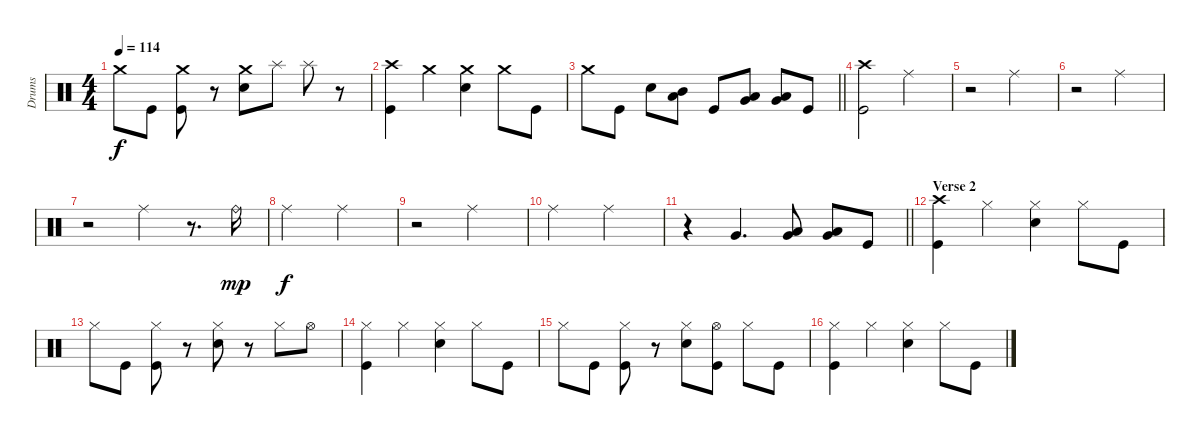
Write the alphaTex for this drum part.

\track ("Drums" "Drums") {instrument percussion}
\staff {score}
\articulation defaults
\ts (4 4)
\tempo 114
\clef neutral
\ks c "Crash medium (hit)".8{dy f} "Kick (hit)".8
("Crash medium (hit)" "Kick (hit)").8 r.8 ("Crash medium (hit)" "Electric Snare (hit)").8 "Splash (hit)".8 "Splash (hit)".8 r.8 |
("Crash high (hit)" "Kick (hit)").4 "Crash medium (hit)".4 ("Crash medium (hit)" "Electric Snare (hit)").4 "Crash medium (hit)".8 "Kick (hit)".8 |
\barLineRight lightlight "Crash medium (hit)".8 "Kick (hit)".8 "Electric Snare (hit)".8
("Mid Tom (hit)" "Low Tom (hit)").8 "Kick (hit)".8 ("Low Tom (hit)" "Very Low Tom (hit)").8 ("Very Low Tom (hit)" "Low Floor Tom (hit)").8 "Kick (hit)".8 |
\section ("" "")
("Crash high (hit)" "Kick (hit)").2 "Ride (middle)".2 |
r.2 "Ride (middle)".2 |
r.2 "Ride (middle)".2 |
r.2 "Ride (middle)".4 r.8{d} "Ride (bell)".16{dy mp} |
"Ride (middle)".2{dy f} "Ride (middle)".2 |
r.2 "Ride (middle)".2 |
"Ride (middle)".2 "Ride (middle)".2 |
\barLineRight lightlight
r.4 "Very Low Tom (hit)".4{d} ("Very Low Tom (hit)" "Low Tom (hit)").8 ("Low Floor Tom (hit)" "Very Low Tom (hit)").8 "Kick (hit)".8 |
\section ("" "Verse 2")
("Crash high (hit)" "Kick (hit)").4 "Hi-Hat (closed)".4 ("Hi-Hat (closed)" "Electric Snare (hit)").4 "Hi-Hat (closed)".8 "Kick (hit)".8 |
"Hi-Hat (closed)".8 "Kick (hit)".8 ("Hi-Hat (closed)" "Kick (hit)").8 r.8 ("Hi-Hat (closed)" "Electric Snare (hit)").8 r.8 "Hi-Hat (closed)".8 "Hi-Hat (open)".8 |
("Hi-Hat (closed)" "Kick (hit)").4 "Hi-Hat (closed)".4 ("Hi-Hat (closed)" "Electric Snare (hit)").4 "Hi-Hat (closed)".8 "Kick (hit)".8 |
"Hi-Hat (closed)".8 "Kick (hit)".8 ("Hi-Hat (closed)" "Kick (hit)").8 r.8 ("Hi-Hat (closed)" "Electric Snare (hit)").8 ("Hi-Hat (open)" "Kick (hit)").8 "Hi-Hat (closed)".8 "Kick (hit)".8 |
("Hi-Hat (closed)" "Kick (hit)").4 "Hi-Hat (closed)".4 ("Hi-Hat (closed)" "Electric Snare (hit)").4 "Hi-Hat (closed)".8 "Kick (hit)".8
